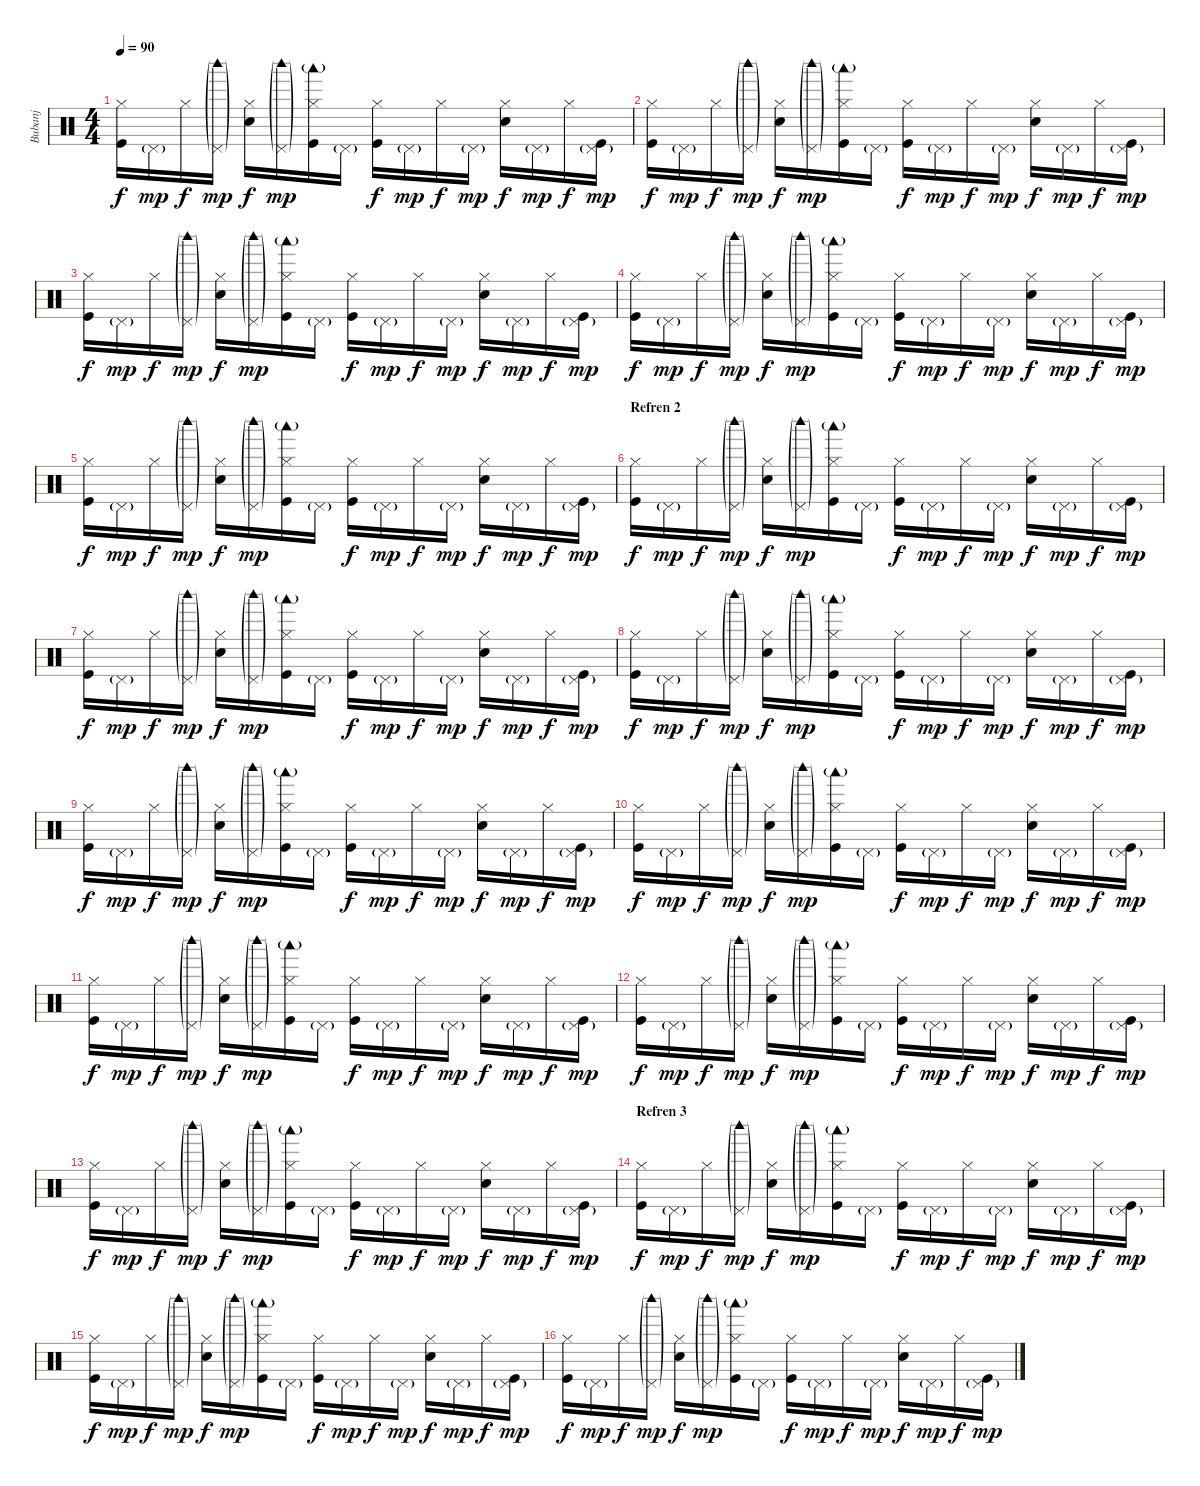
\track ("Bubanj" "Bubanj") {instrument percussion}
\staff {score}
\articulation defaults
\ts (4 4)
\tempo 90
\clef neutral
\ks c
("Hi-Hat (closed)" "Kick (hit)").16{dy f} "Pedal Hi-Hat (hit)"{g}.16{dy mp} "Hi-Hat (closed)".16{dy f} ("Pedal Hi-Hat (hit)"{g} "Woodblock high (hit)"{g}).16{dy mp} ("Hi-Hat (closed)" "Snare (hit) 2").16{dy f} ("Pedal Hi-Hat (hit)"{g} "Woodblock high (hit)"{g}).16{dy mp} ("Hi-Hat (closed)" "Woodblock low (hit)"{g} "Kick (hit)").16 "Pedal Hi-Hat (hit)"{g}.16 ("Hi-Hat (closed)" "Kick (hit)").16{dy f} "Pedal Hi-Hat (hit)"{g}.16{dy mp} "Hi-Hat (closed)".16{dy f} "Pedal Hi-Hat (hit)"{g}.16{dy mp} ("Hi-Hat (closed)" "Snare (hit) 2").16{dy f} "Pedal Hi-Hat (hit)"{g}.16{dy mp} "Hi-Hat (closed)".16{dy f} ("Pedal Hi-Hat (hit)"{g} "Kick (hit)").16{dy mp} |
("Hi-Hat (closed)" "Kick (hit)").16{dy f} "Pedal Hi-Hat (hit)"{g}.16{dy mp} "Hi-Hat (closed)".16{dy f} ("Pedal Hi-Hat (hit)"{g} "Woodblock high (hit)"{g}).16{dy mp} ("Hi-Hat (closed)" "Snare (hit) 2").16{dy f} ("Pedal Hi-Hat (hit)"{g} "Woodblock high (hit)"{g}).16{dy mp} ("Hi-Hat (closed)" "Woodblock low (hit)"{g} "Kick (hit)").16 "Pedal Hi-Hat (hit)"{g}.16 ("Hi-Hat (closed)" "Kick (hit)").16{dy f} "Pedal Hi-Hat (hit)"{g}.16{dy mp} "Hi-Hat (closed)".16{dy f} "Pedal Hi-Hat (hit)"{g}.16{dy mp} ("Hi-Hat (closed)" "Snare (hit) 2").16{dy f} "Pedal Hi-Hat (hit)"{g}.16{dy mp} "Hi-Hat (closed)".16{dy f} ("Pedal Hi-Hat (hit)"{g} "Kick (hit)").16{dy mp} |
("Hi-Hat (closed)" "Kick (hit)").16{dy f} "Pedal Hi-Hat (hit)"{g}.16{dy mp} "Hi-Hat (closed)".16{dy f} ("Pedal Hi-Hat (hit)"{g} "Woodblock high (hit)"{g}).16{dy mp} ("Hi-Hat (closed)" "Snare (hit) 2").16{dy f} ("Pedal Hi-Hat (hit)"{g} "Woodblock high (hit)"{g}).16{dy mp} ("Hi-Hat (closed)" "Woodblock low (hit)"{g} "Kick (hit)").16 "Pedal Hi-Hat (hit)"{g}.16 ("Hi-Hat (closed)" "Kick (hit)").16{dy f} "Pedal Hi-Hat (hit)"{g}.16{dy mp} "Hi-Hat (closed)".16{dy f} "Pedal Hi-Hat (hit)"{g}.16{dy mp} ("Hi-Hat (closed)" "Snare (hit) 2").16{dy f} "Pedal Hi-Hat (hit)"{g}.16{dy mp} "Hi-Hat (closed)".16{dy f} ("Pedal Hi-Hat (hit)"{g} "Kick (hit)").16{dy mp} |
("Hi-Hat (closed)" "Kick (hit)").16{dy f} "Pedal Hi-Hat (hit)"{g}.16{dy mp} "Hi-Hat (closed)".16{dy f} ("Pedal Hi-Hat (hit)"{g} "Woodblock high (hit)"{g}).16{dy mp} ("Hi-Hat (closed)" "Snare (hit) 2").16{dy f} ("Pedal Hi-Hat (hit)"{g} "Woodblock high (hit)"{g}).16{dy mp} ("Hi-Hat (closed)" "Woodblock low (hit)"{g} "Kick (hit)").16 "Pedal Hi-Hat (hit)"{g}.16 ("Hi-Hat (closed)" "Kick (hit)").16{dy f} "Pedal Hi-Hat (hit)"{g}.16{dy mp} "Hi-Hat (closed)".16{dy f} "Pedal Hi-Hat (hit)"{g}.16{dy mp} ("Hi-Hat (closed)" "Snare (hit) 2").16{dy f} "Pedal Hi-Hat (hit)"{g}.16{dy mp} "Hi-Hat (closed)".16{dy f} ("Pedal Hi-Hat (hit)"{g} "Kick (hit)").16{dy mp} |
("Hi-Hat (closed)" "Kick (hit)").16{dy f} "Pedal Hi-Hat (hit)"{g}.16{dy mp} "Hi-Hat (closed)".16{dy f} ("Pedal Hi-Hat (hit)"{g} "Woodblock high (hit)"{g}).16{dy mp} ("Hi-Hat (closed)" "Snare (hit) 2").16{dy f} ("Pedal Hi-Hat (hit)"{g} "Woodblock high (hit)"{g}).16{dy mp} ("Hi-Hat (closed)" "Woodblock low (hit)"{g} "Kick (hit)").16 "Pedal Hi-Hat (hit)"{g}.16 ("Hi-Hat (closed)" "Kick (hit)").16{dy f} "Pedal Hi-Hat (hit)"{g}.16{dy mp} "Hi-Hat (closed)".16{dy f} "Pedal Hi-Hat (hit)"{g}.16{dy mp} ("Hi-Hat (closed)" "Snare (hit) 2").16{dy f} "Pedal Hi-Hat (hit)"{g}.16{dy mp} "Hi-Hat (closed)".16{dy f} ("Pedal Hi-Hat (hit)"{g} "Kick (hit)").16{dy mp} |
\section ("" "Refren 2")
("Hi-Hat (closed)" "Kick (hit)").16{dy f} "Pedal Hi-Hat (hit)"{g}.16{dy mp} "Hi-Hat (closed)".16{dy f} ("Pedal Hi-Hat (hit)"{g} "Woodblock high (hit)"{g}).16{dy mp} ("Hi-Hat (closed)" "Snare (hit) 2").16{dy f} ("Pedal Hi-Hat (hit)"{g} "Woodblock high (hit)"{g}).16{dy mp} ("Hi-Hat (closed)" "Woodblock low (hit)"{g} "Kick (hit)").16 "Pedal Hi-Hat (hit)"{g}.16 ("Hi-Hat (closed)" "Kick (hit)").16{dy f} "Pedal Hi-Hat (hit)"{g}.16{dy mp} "Hi-Hat (closed)".16{dy f} "Pedal Hi-Hat (hit)"{g}.16{dy mp} ("Hi-Hat (closed)" "Snare (hit) 2").16{dy f} "Pedal Hi-Hat (hit)"{g}.16{dy mp} "Hi-Hat (closed)".16{dy f} ("Pedal Hi-Hat (hit)"{g} "Kick (hit)").16{dy mp} |
("Hi-Hat (closed)" "Kick (hit)").16{dy f} "Pedal Hi-Hat (hit)"{g}.16{dy mp} "Hi-Hat (closed)".16{dy f} ("Pedal Hi-Hat (hit)"{g} "Woodblock high (hit)"{g}).16{dy mp} ("Hi-Hat (closed)" "Snare (hit) 2").16{dy f} ("Pedal Hi-Hat (hit)"{g} "Woodblock high (hit)"{g}).16{dy mp} ("Hi-Hat (closed)" "Woodblock low (hit)"{g} "Kick (hit)").16 "Pedal Hi-Hat (hit)"{g}.16 ("Hi-Hat (closed)" "Kick (hit)").16{dy f} "Pedal Hi-Hat (hit)"{g}.16{dy mp} "Hi-Hat (closed)".16{dy f} "Pedal Hi-Hat (hit)"{g}.16{dy mp} ("Hi-Hat (closed)" "Snare (hit) 2").16{dy f} "Pedal Hi-Hat (hit)"{g}.16{dy mp} "Hi-Hat (closed)".16{dy f} ("Pedal Hi-Hat (hit)"{g} "Kick (hit)").16{dy mp} |
("Hi-Hat (closed)" "Kick (hit)").16{dy f} "Pedal Hi-Hat (hit)"{g}.16{dy mp} "Hi-Hat (closed)".16{dy f} ("Pedal Hi-Hat (hit)"{g} "Woodblock high (hit)"{g}).16{dy mp} ("Hi-Hat (closed)" "Snare (hit) 2").16{dy f} ("Pedal Hi-Hat (hit)"{g} "Woodblock high (hit)"{g}).16{dy mp} ("Hi-Hat (closed)" "Woodblock low (hit)"{g} "Kick (hit)").16 "Pedal Hi-Hat (hit)"{g}.16 ("Hi-Hat (closed)" "Kick (hit)").16{dy f} "Pedal Hi-Hat (hit)"{g}.16{dy mp} "Hi-Hat (closed)".16{dy f} "Pedal Hi-Hat (hit)"{g}.16{dy mp} ("Hi-Hat (closed)" "Snare (hit) 2").16{dy f} "Pedal Hi-Hat (hit)"{g}.16{dy mp} "Hi-Hat (closed)".16{dy f} ("Pedal Hi-Hat (hit)"{g} "Kick (hit)").16{dy mp} |
("Hi-Hat (closed)" "Kick (hit)").16{dy f} "Pedal Hi-Hat (hit)"{g}.16{dy mp} "Hi-Hat (closed)".16{dy f} ("Pedal Hi-Hat (hit)"{g} "Woodblock high (hit)"{g}).16{dy mp} ("Hi-Hat (closed)" "Snare (hit) 2").16{dy f} ("Pedal Hi-Hat (hit)"{g} "Woodblock high (hit)"{g}).16{dy mp} ("Hi-Hat (closed)" "Woodblock low (hit)"{g} "Kick (hit)").16 "Pedal Hi-Hat (hit)"{g}.16 ("Hi-Hat (closed)" "Kick (hit)").16{dy f} "Pedal Hi-Hat (hit)"{g}.16{dy mp} "Hi-Hat (closed)".16{dy f} "Pedal Hi-Hat (hit)"{g}.16{dy mp} ("Hi-Hat (closed)" "Snare (hit) 2").16{dy f} "Pedal Hi-Hat (hit)"{g}.16{dy mp} "Hi-Hat (closed)".16{dy f} ("Pedal Hi-Hat (hit)"{g} "Kick (hit)").16{dy mp} |
("Hi-Hat (closed)" "Kick (hit)").16{dy f} "Pedal Hi-Hat (hit)"{g}.16{dy mp} "Hi-Hat (closed)".16{dy f} ("Pedal Hi-Hat (hit)"{g} "Woodblock high (hit)"{g}).16{dy mp} ("Hi-Hat (closed)" "Snare (hit) 2").16{dy f} ("Pedal Hi-Hat (hit)"{g} "Woodblock high (hit)"{g}).16{dy mp} ("Hi-Hat (closed)" "Woodblock low (hit)"{g} "Kick (hit)").16 "Pedal Hi-Hat (hit)"{g}.16 ("Hi-Hat (closed)" "Kick (hit)").16{dy f} "Pedal Hi-Hat (hit)"{g}.16{dy mp} "Hi-Hat (closed)".16{dy f} "Pedal Hi-Hat (hit)"{g}.16{dy mp} ("Hi-Hat (closed)" "Snare (hit) 2").16{dy f} "Pedal Hi-Hat (hit)"{g}.16{dy mp} "Hi-Hat (closed)".16{dy f} ("Pedal Hi-Hat (hit)"{g} "Kick (hit)").16{dy mp} |
("Hi-Hat (closed)" "Kick (hit)").16{dy f} "Pedal Hi-Hat (hit)"{g}.16{dy mp} "Hi-Hat (closed)".16{dy f} ("Pedal Hi-Hat (hit)"{g} "Woodblock high (hit)"{g}).16{dy mp} ("Hi-Hat (closed)" "Snare (hit) 2").16{dy f} ("Pedal Hi-Hat (hit)"{g} "Woodblock high (hit)"{g}).16{dy mp} ("Hi-Hat (closed)" "Woodblock low (hit)"{g} "Kick (hit)").16 "Pedal Hi-Hat (hit)"{g}.16 ("Hi-Hat (closed)" "Kick (hit)").16{dy f} "Pedal Hi-Hat (hit)"{g}.16{dy mp} "Hi-Hat (closed)".16{dy f} "Pedal Hi-Hat (hit)"{g}.16{dy mp} ("Hi-Hat (closed)" "Snare (hit) 2").16{dy f} "Pedal Hi-Hat (hit)"{g}.16{dy mp} "Hi-Hat (closed)".16{dy f} ("Pedal Hi-Hat (hit)"{g} "Kick (hit)").16{dy mp} |
("Hi-Hat (closed)" "Kick (hit)").16{dy f} "Pedal Hi-Hat (hit)"{g}.16{dy mp} "Hi-Hat (closed)".16{dy f} ("Pedal Hi-Hat (hit)"{g} "Woodblock high (hit)"{g}).16{dy mp} ("Hi-Hat (closed)" "Snare (hit) 2").16{dy f} ("Pedal Hi-Hat (hit)"{g} "Woodblock high (hit)"{g}).16{dy mp} ("Hi-Hat (closed)" "Woodblock low (hit)"{g} "Kick (hit)").16 "Pedal Hi-Hat (hit)"{g}.16 ("Hi-Hat (closed)" "Kick (hit)").16{dy f} "Pedal Hi-Hat (hit)"{g}.16{dy mp} "Hi-Hat (closed)".16{dy f} "Pedal Hi-Hat (hit)"{g}.16{dy mp} ("Hi-Hat (closed)" "Snare (hit) 2").16{dy f} "Pedal Hi-Hat (hit)"{g}.16{dy mp} "Hi-Hat (closed)".16{dy f} ("Pedal Hi-Hat (hit)"{g} "Kick (hit)").16{dy mp} |
("Hi-Hat (closed)" "Kick (hit)").16{dy f} "Pedal Hi-Hat (hit)"{g}.16{dy mp} "Hi-Hat (closed)".16{dy f} ("Pedal Hi-Hat (hit)"{g} "Woodblock high (hit)"{g}).16{dy mp} ("Hi-Hat (closed)" "Snare (hit) 2").16{dy f} ("Pedal Hi-Hat (hit)"{g} "Woodblock high (hit)"{g}).16{dy mp} ("Hi-Hat (closed)" "Woodblock low (hit)"{g} "Kick (hit)").16 "Pedal Hi-Hat (hit)"{g}.16 ("Hi-Hat (closed)" "Kick (hit)").16{dy f} "Pedal Hi-Hat (hit)"{g}.16{dy mp} "Hi-Hat (closed)".16{dy f} "Pedal Hi-Hat (hit)"{g}.16{dy mp} ("Hi-Hat (closed)" "Snare (hit) 2").16{dy f} "Pedal Hi-Hat (hit)"{g}.16{dy mp} "Hi-Hat (closed)".16{dy f} ("Pedal Hi-Hat (hit)"{g} "Kick (hit)").16{dy mp} |
\section ("" "Refren 3")
("Hi-Hat (closed)" "Kick (hit)").16{dy f} "Pedal Hi-Hat (hit)"{g}.16{dy mp} "Hi-Hat (closed)".16{dy f} ("Pedal Hi-Hat (hit)"{g} "Woodblock high (hit)"{g}).16{dy mp} ("Hi-Hat (closed)" "Snare (hit) 2").16{dy f} ("Pedal Hi-Hat (hit)"{g} "Woodblock high (hit)"{g}).16{dy mp} ("Hi-Hat (closed)" "Woodblock low (hit)"{g} "Kick (hit)").16 "Pedal Hi-Hat (hit)"{g}.16 ("Hi-Hat (closed)" "Kick (hit)").16{dy f} "Pedal Hi-Hat (hit)"{g}.16{dy mp} "Hi-Hat (closed)".16{dy f} "Pedal Hi-Hat (hit)"{g}.16{dy mp} ("Hi-Hat (closed)" "Snare (hit) 2").16{dy f} "Pedal Hi-Hat (hit)"{g}.16{dy mp} "Hi-Hat (closed)".16{dy f} ("Pedal Hi-Hat (hit)"{g} "Kick (hit)").16{dy mp} |
("Hi-Hat (closed)" "Kick (hit)").16{dy f} "Pedal Hi-Hat (hit)"{g}.16{dy mp} "Hi-Hat (closed)".16{dy f} ("Pedal Hi-Hat (hit)"{g} "Woodblock high (hit)"{g}).16{dy mp} ("Hi-Hat (closed)" "Snare (hit) 2").16{dy f} ("Pedal Hi-Hat (hit)"{g} "Woodblock high (hit)"{g}).16{dy mp} ("Hi-Hat (closed)" "Woodblock low (hit)"{g} "Kick (hit)").16 "Pedal Hi-Hat (hit)"{g}.16 ("Hi-Hat (closed)" "Kick (hit)").16{dy f} "Pedal Hi-Hat (hit)"{g}.16{dy mp} "Hi-Hat (closed)".16{dy f} "Pedal Hi-Hat (hit)"{g}.16{dy mp} ("Hi-Hat (closed)" "Snare (hit) 2").16{dy f} "Pedal Hi-Hat (hit)"{g}.16{dy mp} "Hi-Hat (closed)".16{dy f} ("Pedal Hi-Hat (hit)"{g} "Kick (hit)").16{dy mp} |
("Hi-Hat (closed)" "Kick (hit)").16{dy f} "Pedal Hi-Hat (hit)"{g}.16{dy mp} "Hi-Hat (closed)".16{dy f} ("Pedal Hi-Hat (hit)"{g} "Woodblock high (hit)"{g}).16{dy mp} ("Hi-Hat (closed)" "Snare (hit) 2").16{dy f} ("Pedal Hi-Hat (hit)"{g} "Woodblock high (hit)"{g}).16{dy mp} ("Hi-Hat (closed)" "Woodblock low (hit)"{g} "Kick (hit)").16 "Pedal Hi-Hat (hit)"{g}.16 ("Hi-Hat (closed)" "Kick (hit)").16{dy f} "Pedal Hi-Hat (hit)"{g}.16{dy mp} "Hi-Hat (closed)".16{dy f} "Pedal Hi-Hat (hit)"{g}.16{dy mp} ("Hi-Hat (closed)" "Snare (hit) 2").16{dy f} "Pedal Hi-Hat (hit)"{g}.16{dy mp} "Hi-Hat (closed)".16{dy f} ("Pedal Hi-Hat (hit)"{g} "Kick (hit)").16{dy mp}
